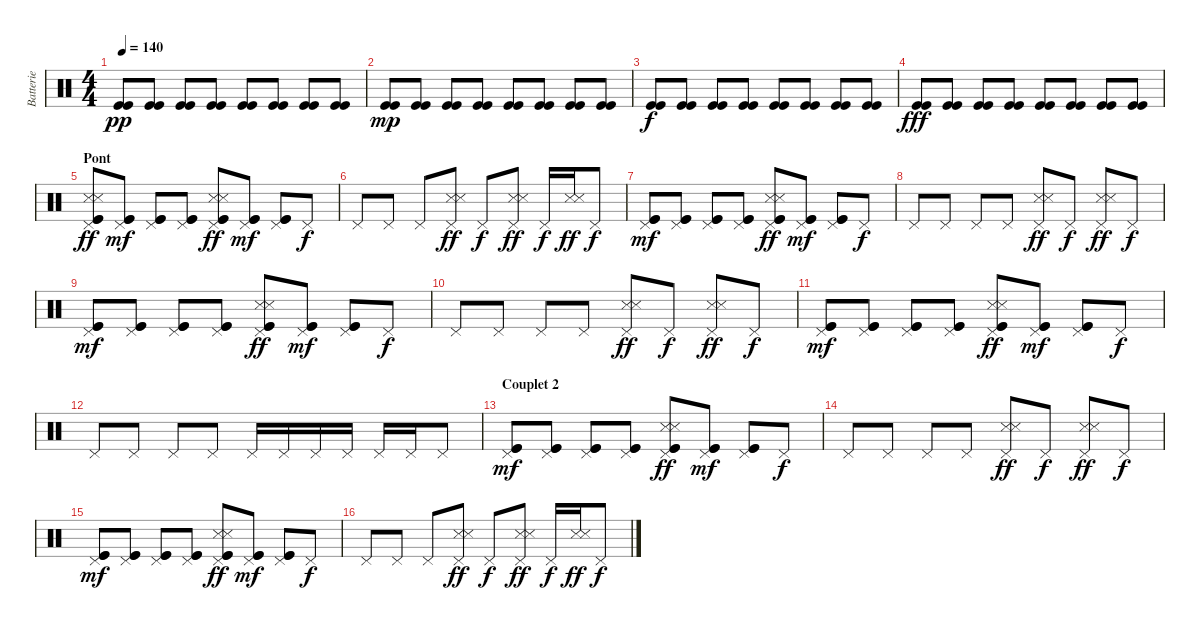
\track ("Batterie " "Batterie ") {instrument percussion}
\staff {score}
\articulation defaults
\ts (4 4)
\tempo 140
\clef neutral
\ks c
("Kick (hit)" "Kick (hit)").8{dy pp} ("Kick (hit)" "Kick (hit)").8 ("Kick (hit)" "Kick (hit)").8 ("Kick (hit)" "Kick (hit)").8 ("Kick (hit)" "Kick (hit)").8 ("Kick (hit)" "Kick (hit)").8 ("Kick (hit)" "Kick (hit)").8 ("Kick (hit)" "Kick (hit)").8 |
("Kick (hit)" "Kick (hit)").8{dy mp} ("Kick (hit)" "Kick (hit)").8 ("Kick (hit)" "Kick (hit)").8 ("Kick (hit)" "Kick (hit)").8 ("Kick (hit)" "Kick (hit)").8 ("Kick (hit)" "Kick (hit)").8 ("Kick (hit)" "Kick (hit)").8 ("Kick (hit)" "Kick (hit)").8 |
("Kick (hit)" "Kick (hit)").8{dy f} ("Kick (hit)" "Kick (hit)").8 ("Kick (hit)" "Kick (hit)").8 ("Kick (hit)" "Kick (hit)").8 ("Kick (hit)" "Kick (hit)").8 ("Kick (hit)" "Kick (hit)").8 ("Kick (hit)" "Kick (hit)").8 ("Kick (hit)" "Kick (hit)").8 |
("Kick (hit)" "Kick (hit)").8{dy fff} ("Kick (hit)" "Kick (hit)").8 ("Kick (hit)" "Kick (hit)").8 ("Kick (hit)" "Kick (hit)").8 ("Kick (hit)" "Kick (hit)").8 ("Kick (hit)" "Kick (hit)").8 ("Kick (hit)" "Kick (hit)").8 ("Kick (hit)" "Kick (hit)").8 |
\section ("" "Pont")
("Kick (hit)" "Kick (hit)" "Snare (side stick) 3" "Snare (side stick) 3" "Pedal Hi-Hat (hit)").8{dy ff} ("Kick (hit)" "Kick (hit)" "Pedal Hi-Hat (hit)").8{dy mf} ("Kick (hit)" "Kick (hit)" "Pedal Hi-Hat (hit)").8 ("Kick (hit)" "Kick (hit)" "Pedal Hi-Hat (hit)").8 ("Kick (hit)" "Kick (hit)" "Snare (side stick) 3" "Snare (side stick) 3" "Pedal Hi-Hat (hit)").8{dy ff} ("Kick (hit)" "Kick (hit)" "Pedal Hi-Hat (hit)").8{dy mf} ("Kick (hit)" "Kick (hit)" "Pedal Hi-Hat (hit)").8 "Pedal Hi-Hat (hit)".8{dy f} |
"Pedal Hi-Hat (hit)".8 "Pedal Hi-Hat (hit)".8 "Pedal Hi-Hat (hit)".8 ("Snare (side stick) 3" "Snare (side stick) 3" "Pedal Hi-Hat (hit)").8{dy ff} "Pedal Hi-Hat (hit)".8{dy f} ("Snare (side stick) 3" "Snare (side stick) 3" "Pedal Hi-Hat (hit)").8{dy ff} "Pedal Hi-Hat (hit)".16{dy f} ("Snare (side stick) 3" "Snare (side stick) 3").16{dy ff} "Pedal Hi-Hat (hit)".8{dy f} |
("Kick (hit)" "Kick (hit)" "Pedal Hi-Hat (hit)").8{dy mf} ("Kick (hit)" "Kick (hit)" "Pedal Hi-Hat (hit)").8 ("Kick (hit)" "Kick (hit)" "Pedal Hi-Hat (hit)").8 ("Kick (hit)" "Kick (hit)" "Pedal Hi-Hat (hit)").8 ("Kick (hit)" "Kick (hit)" "Snare (side stick) 3" "Snare (side stick) 3" "Pedal Hi-Hat (hit)").8{dy ff} ("Kick (hit)" "Kick (hit)" "Pedal Hi-Hat (hit)").8{dy mf} ("Kick (hit)" "Kick (hit)" "Pedal Hi-Hat (hit)").8 "Pedal Hi-Hat (hit)".8{dy f} |
"Pedal Hi-Hat (hit)".8 "Pedal Hi-Hat (hit)".8 "Pedal Hi-Hat (hit)".8 "Pedal Hi-Hat (hit)".8 ("Snare (side stick) 3" "Snare (side stick) 3" "Pedal Hi-Hat (hit)").8{dy ff} "Pedal Hi-Hat (hit)".8{dy f} ("Snare (side stick) 3" "Snare (side stick) 3" "Pedal Hi-Hat (hit)").8{dy ff} "Pedal Hi-Hat (hit)".8{dy f} |
("Kick (hit)" "Kick (hit)" "Pedal Hi-Hat (hit)").8{dy mf} ("Kick (hit)" "Kick (hit)" "Pedal Hi-Hat (hit)").8 ("Kick (hit)" "Kick (hit)" "Pedal Hi-Hat (hit)").8 ("Kick (hit)" "Kick (hit)" "Pedal Hi-Hat (hit)").8 ("Kick (hit)" "Kick (hit)" "Snare (side stick) 3" "Snare (side stick) 3" "Pedal Hi-Hat (hit)").8{dy ff} ("Kick (hit)" "Kick (hit)" "Pedal Hi-Hat (hit)").8{dy mf} ("Kick (hit)" "Kick (hit)" "Pedal Hi-Hat (hit)").8 "Pedal Hi-Hat (hit)".8{dy f} |
"Pedal Hi-Hat (hit)".8 "Pedal Hi-Hat (hit)".8 "Pedal Hi-Hat (hit)".8 "Pedal Hi-Hat (hit)".8 ("Snare (side stick) 3" "Snare (side stick) 3" "Pedal Hi-Hat (hit)").8{dy ff} "Pedal Hi-Hat (hit)".8{dy f} ("Snare (side stick) 3" "Snare (side stick) 3" "Pedal Hi-Hat (hit)").8{dy ff} "Pedal Hi-Hat (hit)".8{dy f} |
("Kick (hit)" "Kick (hit)" "Pedal Hi-Hat (hit)").8{dy mf} ("Kick (hit)" "Kick (hit)" "Pedal Hi-Hat (hit)").8 ("Kick (hit)" "Kick (hit)" "Pedal Hi-Hat (hit)").8 ("Kick (hit)" "Kick (hit)" "Pedal Hi-Hat (hit)").8 ("Kick (hit)" "Kick (hit)" "Snare (side stick) 3" "Snare (side stick) 3" "Pedal Hi-Hat (hit)").8{dy ff} ("Kick (hit)" "Kick (hit)" "Pedal Hi-Hat (hit)").8{dy mf} ("Kick (hit)" "Kick (hit)" "Pedal Hi-Hat (hit)").8 "Pedal Hi-Hat (hit)".8{dy f} |
"Pedal Hi-Hat (hit)".8 "Pedal Hi-Hat (hit)".8 "Pedal Hi-Hat (hit)".8 "Pedal Hi-Hat (hit)".8 "Pedal Hi-Hat (hit)".16 "Pedal Hi-Hat (hit)".16 "Pedal Hi-Hat (hit)".16 "Pedal Hi-Hat (hit)".16 "Pedal Hi-Hat (hit)".16 "Pedal Hi-Hat (hit)".16 "Pedal Hi-Hat (hit)".8 |
\section ("" "Couplet 2")
("Kick (hit)" "Kick (hit)" "Pedal Hi-Hat (hit)").8{dy mf} ("Kick (hit)" "Kick (hit)" "Pedal Hi-Hat (hit)").8 ("Kick (hit)" "Kick (hit)" "Pedal Hi-Hat (hit)").8 ("Kick (hit)" "Kick (hit)" "Pedal Hi-Hat (hit)").8 ("Kick (hit)" "Kick (hit)" "Snare (side stick) 3" "Snare (side stick) 3" "Pedal Hi-Hat (hit)").8{dy ff} ("Kick (hit)" "Kick (hit)" "Pedal Hi-Hat (hit)").8{dy mf} ("Kick (hit)" "Kick (hit)" "Pedal Hi-Hat (hit)").8 "Pedal Hi-Hat (hit)".8{dy f} |
"Pedal Hi-Hat (hit)".8 "Pedal Hi-Hat (hit)".8 "Pedal Hi-Hat (hit)".8 "Pedal Hi-Hat (hit)".8 ("Snare (side stick) 3" "Snare (side stick) 3" "Pedal Hi-Hat (hit)").8{dy ff} "Pedal Hi-Hat (hit)".8{dy f} ("Snare (side stick) 3" "Snare (side stick) 3" "Pedal Hi-Hat (hit)").8{dy ff} "Pedal Hi-Hat (hit)".8{dy f} |
("Kick (hit)" "Kick (hit)" "Pedal Hi-Hat (hit)").8{dy mf} ("Kick (hit)" "Kick (hit)" "Pedal Hi-Hat (hit)").8 ("Kick (hit)" "Kick (hit)" "Pedal Hi-Hat (hit)").8 ("Kick (hit)" "Kick (hit)" "Pedal Hi-Hat (hit)").8 ("Kick (hit)" "Kick (hit)" "Snare (side stick) 3" "Snare (side stick) 3" "Pedal Hi-Hat (hit)").8{dy ff} ("Kick (hit)" "Kick (hit)" "Pedal Hi-Hat (hit)").8{dy mf} ("Kick (hit)" "Kick (hit)" "Pedal Hi-Hat (hit)").8 "Pedal Hi-Hat (hit)".8{dy f} |
"Pedal Hi-Hat (hit)".8 "Pedal Hi-Hat (hit)".8 "Pedal Hi-Hat (hit)".8 ("Snare (side stick) 3" "Snare (side stick) 3" "Pedal Hi-Hat (hit)").8{dy ff} "Pedal Hi-Hat (hit)".8{dy f} ("Snare (side stick) 3" "Snare (side stick) 3" "Pedal Hi-Hat (hit)").8{dy ff} "Pedal Hi-Hat (hit)".16{dy f} ("Snare (side stick) 3" "Snare (side stick) 3").16{dy ff} "Pedal Hi-Hat (hit)".8{dy f}
